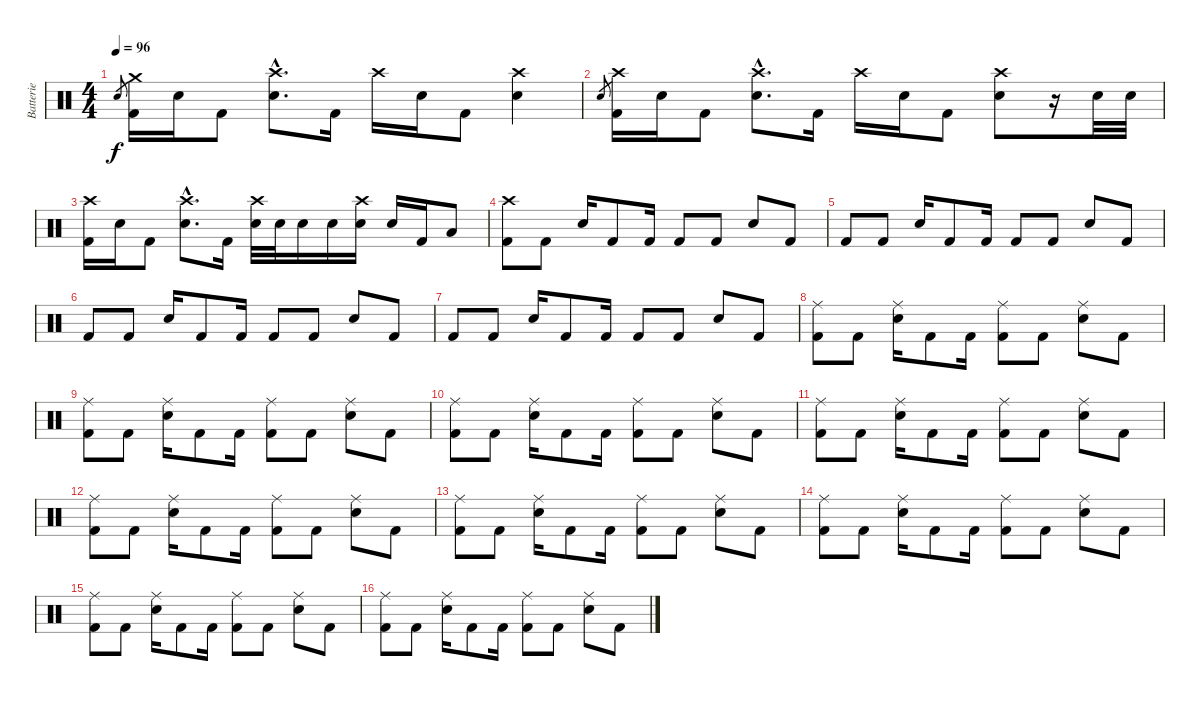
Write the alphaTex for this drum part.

\track ("Batterie" "Batterie") {instrument percussion}
\staff {score}
\articulation defaults
\ts (4 4)
\tempo 96
\clef neutral
\ks c "Snare (hit) 2".8{gr dy f}
("Crash medium (hit)" "Kick (hit) 2").16 "Snare (hit) 2".16 "Kick (hit) 2".8 ("Crash high (hit)"{hac} "Snare (hit) 2"{hac}).8{d} "Kick (hit) 2".16 "Crash high (hit)".16 "Snare (hit) 2".16 "Kick (hit) 2".8 ("Crash high (hit)" "Snare (hit) 2").4 |
"Snare (hit) 2".8{gr} ("Crash high (hit)" "Kick (hit) 2").16 "Snare (hit) 2".16 "Kick (hit) 2".8 ("Crash high (hit)"{hac} "Snare (hit) 2"{hac}).8{d} "Kick (hit) 2".16 "Crash high (hit)".16 "Snare (hit) 2".16 "Kick (hit) 2".8 ("Crash high (hit)" "Snare (hit) 2").8 r.16 "Snare (hit) 2".32 "Snare (hit) 2".32 |
("Crash high (hit)" "Kick (hit) 2").16 "Snare (hit) 2".16 "Kick (hit) 2".8 ("Crash high (hit)"{hac} "Snare (hit) 2"{hac}).8{d} "Kick (hit) 2".16 ("Crash high (hit)" "Snare (hit) 2").32 "Snare (hit) 2".32 "Snare (hit) 2".16 "Snare (hit) 2".16 ("Crash high (hit)" "Snare (hit) 2").16 "Snare (hit) 2".16 "Kick (hit) 2".16 "Low Tom (hit)".8 |
("Crash high (hit)" "Kick (hit) 2").8 "Kick (hit) 2".8 "Electric Snare (hit)".16 "Kick (hit) 2".8 "Kick (hit) 2".16 "Kick (hit) 2".8 "Kick (hit) 2".8 "Electric Snare (hit)".8 "Kick (hit) 2".8 |
"Kick (hit) 2".8 "Kick (hit) 2".8 "Electric Snare (hit)".16 "Kick (hit) 2".8 "Kick (hit) 2".16 "Kick (hit) 2".8 "Kick (hit) 2".8 "Electric Snare (hit)".8 "Kick (hit) 2".8 |
"Kick (hit) 2".8 "Kick (hit) 2".8 "Electric Snare (hit)".16 "Kick (hit) 2".8 "Kick (hit) 2".16 "Kick (hit) 2".8 "Kick (hit) 2".8 "Electric Snare (hit)".8 "Kick (hit) 2".8 |
"Kick (hit) 2".8 "Kick (hit) 2".8 "Electric Snare (hit)".16 "Kick (hit) 2".8 "Kick (hit) 2".16 "Kick (hit) 2".8 "Kick (hit) 2".8 "Electric Snare (hit)".8 "Kick (hit) 2".8 |
("Ride (middle)" "Kick (hit) 2").8 "Kick (hit) 2".8 ("Ride (middle)" "Electric Snare (hit)").16 "Kick (hit) 2".8 "Kick (hit) 2".16 ("Ride (middle)" "Kick (hit) 2").8 "Kick (hit) 2".8 ("Ride (middle)" "Electric Snare (hit)").8 "Kick (hit) 2".8 |
("Ride (middle)" "Kick (hit) 2").8 "Kick (hit) 2".8 ("Ride (middle)" "Electric Snare (hit)").16 "Kick (hit) 2".8 "Kick (hit) 2".16 ("Ride (middle)" "Kick (hit) 2").8 "Kick (hit) 2".8 ("Ride (middle)" "Electric Snare (hit)").8 "Kick (hit) 2".8 |
("Ride (middle)" "Kick (hit) 2").8 "Kick (hit) 2".8 ("Ride (middle)" "Electric Snare (hit)").16 "Kick (hit) 2".8 "Kick (hit) 2".16 ("Ride (middle)" "Kick (hit) 2").8 "Kick (hit) 2".8 ("Ride (middle)" "Electric Snare (hit)").8 "Kick (hit) 2".8 |
("Ride (middle)" "Kick (hit) 2").8 "Kick (hit) 2".8 ("Ride (middle)" "Electric Snare (hit)").16 "Kick (hit) 2".8 "Kick (hit) 2".16 ("Ride (middle)" "Kick (hit) 2").8 "Kick (hit) 2".8 ("Ride (middle)" "Electric Snare (hit)").8 "Kick (hit) 2".8 |
("Ride (middle)" "Kick (hit) 2").8 "Kick (hit) 2".8 ("Ride (middle)" "Electric Snare (hit)").16 "Kick (hit) 2".8 "Kick (hit) 2".16 ("Ride (middle)" "Kick (hit) 2").8 "Kick (hit) 2".8 ("Ride (middle)" "Electric Snare (hit)").8 "Kick (hit) 2".8 |
("Ride (middle)" "Kick (hit) 2").8 "Kick (hit) 2".8 ("Ride (middle)" "Electric Snare (hit)").16 "Kick (hit) 2".8 "Kick (hit) 2".16 ("Ride (middle)" "Kick (hit) 2").8 "Kick (hit) 2".8 ("Ride (middle)" "Electric Snare (hit)").8 "Kick (hit) 2".8 |
("Ride (middle)" "Kick (hit) 2").8 "Kick (hit) 2".8 ("Ride (middle)" "Electric Snare (hit)").16 "Kick (hit) 2".8 "Kick (hit) 2".16 ("Ride (middle)" "Kick (hit) 2").8 "Kick (hit) 2".8 ("Ride (middle)" "Electric Snare (hit)").8 "Kick (hit) 2".8 |
("Ride (middle)" "Kick (hit) 2").8 "Kick (hit) 2".8 ("Ride (middle)" "Electric Snare (hit)").16 "Kick (hit) 2".8 "Kick (hit) 2".16 ("Ride (middle)" "Kick (hit) 2").8 "Kick (hit) 2".8 ("Ride (middle)" "Electric Snare (hit)").8 "Kick (hit) 2".8 |
("Ride (middle)" "Kick (hit) 2").8 "Kick (hit) 2".8 ("Ride (middle)" "Electric Snare (hit)").16 "Kick (hit) 2".8 "Kick (hit) 2".16 ("Ride (middle)" "Kick (hit) 2").8 "Kick (hit) 2".8 ("Ride (middle)" "Electric Snare (hit)").8 "Kick (hit) 2".8
